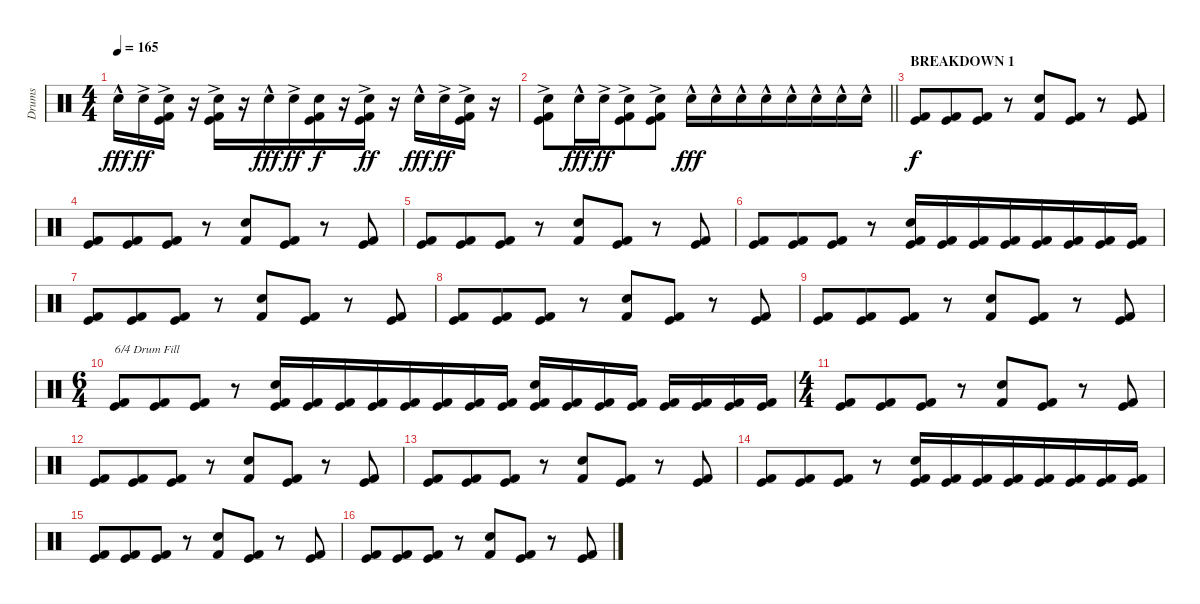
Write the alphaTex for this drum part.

\track ("Drums" "Drums") {instrument percussion}
\staff {score}
\articulation defaults
\ts (4 4)
\tempo 165
\clef neutral
\ks c "Snare (hit) 2"{hac}.16{dy fff beam Down} "Snare (hit) 2"{ac}.16{dy ff beam Down}
("Snare (hit) 2"{ac} "Kick (hit)" "Kick (hit) 2").16{beam Down} r.16 ("Snare (hit) 2"{ac} "Kick (hit)" "Kick (hit) 2").16{beam Down} r.16 "Snare (hit) 2"{hac}.16{dy fff beam Down} "Snare (hit) 2"{ac}.16{dy ff beam Down beam merge} ("Snare (hit) 2" "Kick (hit)" "Kick (hit) 2").16{dy f beam Down} r.16 ("Snare (hit) 2"{ac} "Kick (hit)" "Kick (hit) 2").16{dy ff beam Down} r.16 "Snare (hit) 2"{hac}.16{dy fff beam Down} "Snare (hit) 2"{ac}.16{dy ff beam Down} ("Snare (hit) 2"{ac} "Kick (hit)" "Kick (hit) 2").16{beam Down} r.16 |
\barLineRight lightlight
("Snare (hit) 2"{ac} "Kick (hit)" "Kick (hit) 2").8{beam Down} "Snare (hit) 2"{hac}.16{dy fff beam Down} "Snare (hit) 2"{ac}.16{dy ff beam Down beam merge} ("Snare (hit) 2"{ac} "Kick (hit)" "Kick (hit) 2").8{beam Down} ("Snare (hit) 2"{ac} "Kick (hit)" "Kick (hit) 2").8{beam Down} "Snare (hit) 2"{hac}.16{dy fff} "Snare (hit) 2"{hac}.16 "Snare (hit) 2"{hac}.16 "Snare (hit) 2"{hac}.16{beam merge} "Snare (hit) 2"{hac}.16 "Snare (hit) 2"{hac}.16 "Snare (hit) 2"{hac}.16 "Snare (hit) 2"{hac}.16 |
\section ("" "BREAKDOWN 1")
("Kick (hit)" "Kick (hit) 2").8{dy f} ("Kick (hit)" "Kick (hit) 2").8{beam merge} ("Kick (hit)" "Kick (hit) 2").8 r.8 ("Snare (hit) 2" "Kick (hit) 2").8 ("Kick (hit)" "Kick (hit) 2").8 r.8 ("Kick (hit)" "Kick (hit) 2").8 |
("Kick (hit)" "Kick (hit) 2").8 ("Kick (hit)" "Kick (hit) 2").8{beam merge} ("Kick (hit)" "Kick (hit) 2").8 r.8 ("Snare (hit) 2" "Kick (hit) 2").8 ("Kick (hit)" "Kick (hit) 2").8 r.8 ("Kick (hit)" "Kick (hit) 2").8 |
("Kick (hit)" "Kick (hit) 2").8 ("Kick (hit)" "Kick (hit) 2").8{beam merge} ("Kick (hit)" "Kick (hit) 2").8 r.8 ("Snare (hit) 2" "Kick (hit) 2").8 ("Kick (hit)" "Kick (hit) 2").8 r.8 ("Kick (hit)" "Kick (hit) 2").8 |
("Kick (hit)" "Kick (hit) 2").8 ("Kick (hit)" "Kick (hit) 2").8{beam merge} ("Kick (hit)" "Kick (hit) 2").8 r.8 ("Snare (hit) 2" "Kick (hit)" "Kick (hit) 2").16 ("Kick (hit)" "Kick (hit) 2").16 ("Kick (hit)" "Kick (hit) 2").16 ("Kick (hit)" "Kick (hit) 2").16{beam merge} ("Kick (hit)" "Kick (hit) 2").16 ("Kick (hit)" "Kick (hit) 2").16 ("Kick (hit)" "Kick (hit) 2").16 ("Kick (hit)" "Kick (hit) 2").16 |
("Kick (hit)" "Kick (hit) 2").8 ("Kick (hit)" "Kick (hit) 2").8{beam merge} ("Kick (hit)" "Kick (hit) 2").8 r.8 ("Snare (hit) 2" "Kick (hit) 2").8 ("Kick (hit)" "Kick (hit) 2").8 r.8 ("Kick (hit)" "Kick (hit) 2").8 |
("Kick (hit)" "Kick (hit) 2").8 ("Kick (hit)" "Kick (hit) 2").8{beam merge} ("Kick (hit)" "Kick (hit) 2").8 r.8 ("Snare (hit) 2" "Kick (hit) 2").8 ("Kick (hit)" "Kick (hit) 2").8 r.8 ("Kick (hit)" "Kick (hit) 2").8 |
("Kick (hit)" "Kick (hit) 2").8 ("Kick (hit)" "Kick (hit) 2").8{beam merge} ("Kick (hit)" "Kick (hit) 2").8 r.8 ("Snare (hit) 2" "Kick (hit) 2").8 ("Kick (hit)" "Kick (hit) 2").8 r.8 ("Kick (hit)" "Kick (hit) 2").8 |
\ts (6 4)
("Kick (hit)" "Kick (hit) 2").8{txt "6/4 Drum Fill"} ("Kick (hit)" "Kick (hit) 2").8{beam merge} ("Kick (hit)" "Kick (hit) 2").8 r.8 ("Snare (hit) 2" "Kick (hit)" "Kick (hit) 2").16 ("Kick (hit)" "Kick (hit) 2").16 ("Kick (hit)" "Kick (hit) 2").16 ("Kick (hit)" "Kick (hit) 2").16{beam merge} ("Kick (hit)" "Kick (hit) 2").16 ("Kick (hit)" "Kick (hit) 2").16 ("Kick (hit)" "Kick (hit) 2").16 ("Kick (hit)" "Kick (hit) 2").16 ("Snare (hit) 2" "Kick (hit)" "Kick (hit) 2").16 ("Kick (hit)" "Kick (hit) 2").16 ("Kick (hit)" "Kick (hit) 2").16 ("Kick (hit)" "Kick (hit) 2").16 ("Kick (hit)" "Kick (hit) 2").16 ("Kick (hit)" "Kick (hit) 2").16 ("Kick (hit)" "Kick (hit) 2").16 ("Kick (hit)" "Kick (hit) 2").16 |
\ts (4 4)
("Kick (hit)" "Kick (hit) 2").8 ("Kick (hit)" "Kick (hit) 2").8{beam merge} ("Kick (hit)" "Kick (hit) 2").8 r.8 ("Snare (hit) 2" "Kick (hit) 2").8 ("Kick (hit)" "Kick (hit) 2").8 r.8 ("Kick (hit)" "Kick (hit) 2").8 |
("Kick (hit)" "Kick (hit) 2").8 ("Kick (hit)" "Kick (hit) 2").8{beam merge} ("Kick (hit)" "Kick (hit) 2").8 r.8 ("Snare (hit) 2" "Kick (hit) 2").8 ("Kick (hit)" "Kick (hit) 2").8 r.8 ("Kick (hit)" "Kick (hit) 2").8 |
("Kick (hit)" "Kick (hit) 2").8 ("Kick (hit)" "Kick (hit) 2").8{beam merge} ("Kick (hit)" "Kick (hit) 2").8 r.8 ("Snare (hit) 2" "Kick (hit) 2").8 ("Kick (hit)" "Kick (hit) 2").8 r.8 ("Kick (hit)" "Kick (hit) 2").8 |
("Kick (hit)" "Kick (hit) 2").8 ("Kick (hit)" "Kick (hit) 2").8{beam merge} ("Kick (hit)" "Kick (hit) 2").8 r.8 ("Snare (hit) 2" "Kick (hit)" "Kick (hit) 2").16 ("Kick (hit)" "Kick (hit) 2").16 ("Kick (hit)" "Kick (hit) 2").16 ("Kick (hit)" "Kick (hit) 2").16{beam merge} ("Kick (hit)" "Kick (hit) 2").16 ("Kick (hit)" "Kick (hit) 2").16 ("Kick (hit)" "Kick (hit) 2").16 ("Kick (hit)" "Kick (hit) 2").16 |
("Kick (hit)" "Kick (hit) 2").8 ("Kick (hit)" "Kick (hit) 2").8{beam merge} ("Kick (hit)" "Kick (hit) 2").8 r.8 ("Snare (hit) 2" "Kick (hit) 2").8 ("Kick (hit)" "Kick (hit) 2").8 r.8 ("Kick (hit)" "Kick (hit) 2").8 |
("Kick (hit)" "Kick (hit) 2").8 ("Kick (hit)" "Kick (hit) 2").8{beam merge} ("Kick (hit)" "Kick (hit) 2").8 r.8 ("Snare (hit) 2" "Kick (hit) 2").8 ("Kick (hit)" "Kick (hit) 2").8 r.8 ("Kick (hit)" "Kick (hit) 2").8
